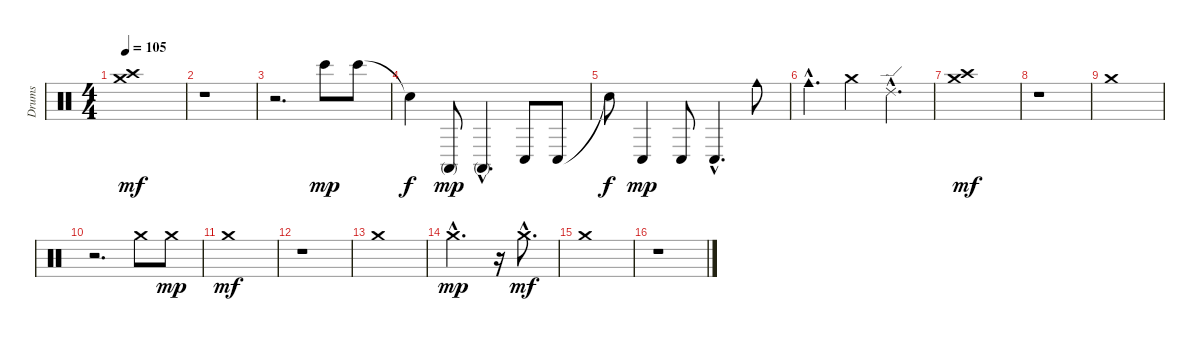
\track ("Drums" "Drums") {instrument percussion}
\staff {score}
\articulation defaults
\ts (4 4)
\tempo 105
\clef neutral
\ks c
("Crash high (hit)" "Crash medium (hit)").1{dy mf} |
r.1 |
r.2{d} "Bongo High (hit)".8{dy mp} "Bongo High (hit)".8 |
"Snare (hit)"{t}.4{dy f} "Conga high (mute)".8{dy mp} "Conga high (mute)"{hac}.4{d} "Conga low (hit)".8 "Conga low (hit)".8 |
"Snare (hit)"{t}.8{dy f} "Conga low (hit)".4{dy mp} "Conga low (hit)".8 "Conga low (hit)"{hac}.4{d} "Cowbell medium (hit)".8 |
"Cowbell medium (hit)"{hac}.4{d} "Crash medium (hit)".4 "Ride (edge) 2"{hac}.4{d} |
("Crash high (hit)" "Crash medium (hit)").1{dy mf} |
r.1 |
"Crash medium (hit)".1 |
r.2{d} "Crash medium (hit)".8 "Crash medium (hit)".8{dy mp} |
"Crash medium (hit)".1{dy mf} |
r.1 |
"Crash medium (hit)".1 |
"Crash medium (hit)"{hac}.2{d dy mp} r.16 "Crash medium (hit)"{hac}.8{d dy mf} |
"Crash medium (hit)".1 |
r.1
